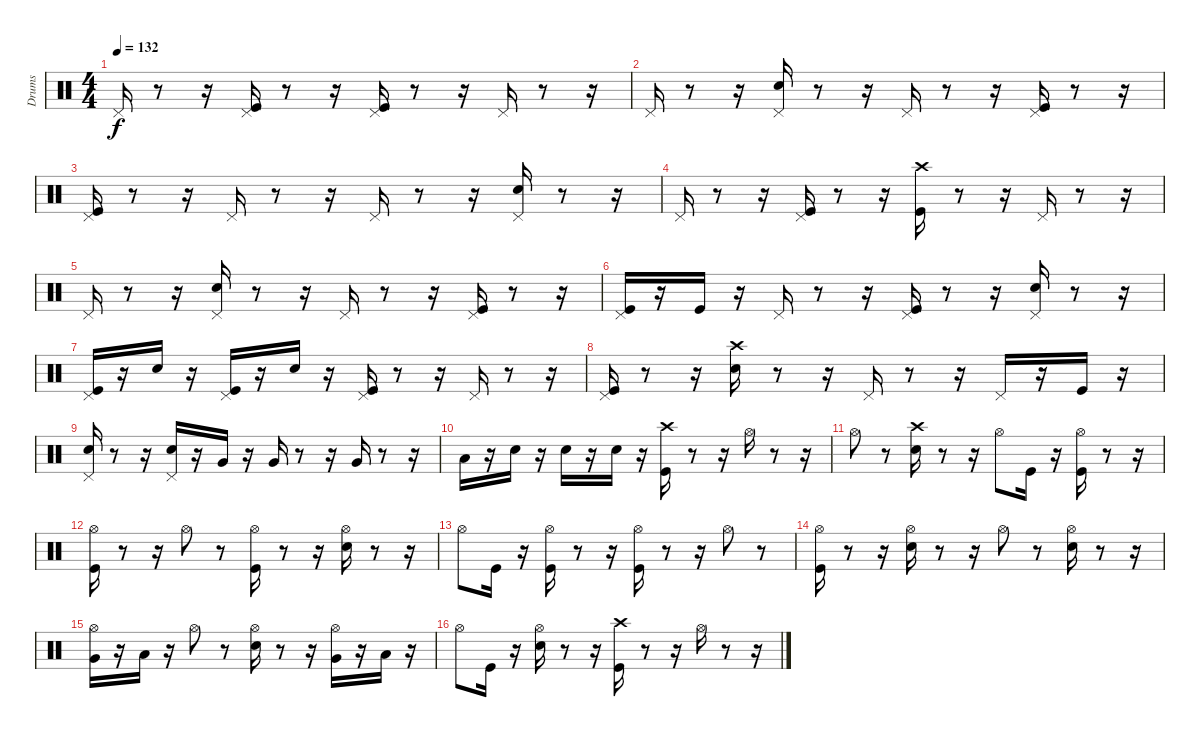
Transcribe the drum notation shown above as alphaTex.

\track ("Drums" "Drums") {instrument percussion}
\staff {score}
\articulation defaults
\ts (4 4)
\tempo 132
\clef neutral
\ks c "Pedal Hi-Hat (hit)".16{dy f}
r.8 r.16 ("Pedal Hi-Hat (hit)" "Kick (hit)").16 r.8 r.16 ("Pedal Hi-Hat (hit)" "Kick (hit)").16 r.8 r.16 "Pedal Hi-Hat (hit)".16 r.8 r.16 |
"Pedal Hi-Hat (hit)".16 r.8 r.16 ("Pedal Hi-Hat (hit)" "Snare (hit) 2").16 r.8 r.16 "Pedal Hi-Hat (hit)".16 r.8 r.16 ("Pedal Hi-Hat (hit)" "Kick (hit)").16 r.8 r.16 |
("Pedal Hi-Hat (hit)" "Kick (hit)").16 r.8 r.16 "Pedal Hi-Hat (hit)".16 r.8 r.16 "Pedal Hi-Hat (hit)".16 r.8 r.16 ("Pedal Hi-Hat (hit)" "Snare (hit) 2").16 r.8 r.16 |
"Pedal Hi-Hat (hit)".16 r.8 r.16 ("Pedal Hi-Hat (hit)" "Kick (hit)").16 r.8 r.16 ("Kick (hit)" "Crash high (hit)").16 r.8 r.16 "Pedal Hi-Hat (hit)".16 r.8 r.16 |
"Pedal Hi-Hat (hit)".16 r.8 r.16 ("Pedal Hi-Hat (hit)" "Snare (hit) 2").16 r.8 r.16 "Pedal Hi-Hat (hit)".16 r.8 r.16 ("Pedal Hi-Hat (hit)" "Kick (hit)").16 r.8 r.16 |
("Pedal Hi-Hat (hit)" "Kick (hit)").16 r.16 "Kick (hit)".16 r.16 "Pedal Hi-Hat (hit)".16 r.8 r.16 ("Pedal Hi-Hat (hit)" "Kick (hit)").16 r.8 r.16 ("Pedal Hi-Hat (hit)" "Snare (hit) 2").16 r.8 r.16 |
("Pedal Hi-Hat (hit)" "Kick (hit)").16 r.16 "Snare (hit) 2".16 r.16 ("Pedal Hi-Hat (hit)" "Kick (hit)").16 r.16 "Snare (hit) 2".16 r.16 ("Kick (hit)" "Pedal Hi-Hat (hit)").16 r.8 r.16 "Pedal Hi-Hat (hit)".16 r.8 r.16 |
("Pedal Hi-Hat (hit)" "Kick (hit)").16 r.8 r.16 ("Snare (hit) 2" "Crash high (hit)").16 r.8 r.16 "Pedal Hi-Hat (hit)".16 r.8 r.16 "Pedal Hi-Hat (hit)".16 r.16 "Kick (hit)".16 r.16 |
("Pedal Hi-Hat (hit)" "Snare (hit) 2").16 r.8 r.16 ("Pedal Hi-Hat (hit)" "Snare (hit) 2").16 r.16 "Very Low Tom (hit)".16 r.16 "Very Low Tom (hit)".16 r.8 r.16 "Very Low Tom (hit)".16 r.8 r.16 |
"Low Floor Tom (hit)".16 r.16 "Snare (hit) 2".16 r.16 "Snare (hit) 2".16 r.16 "Snare (hit) 2".16 r.16 ("Kick (hit)" "Crash high (hit)").16 r.8 r.16 "Hi-Hat (open)".16 r.8 r.16 |
"Hi-Hat (open)".8 r.8 ("Snare (hit) 2" "Crash high (hit)").16 r.8 r.16 "Hi-Hat (open)".8 "Kick (hit)".16 r.16 ("Hi-Hat (open)" "Kick (hit)").16 r.8 r.16 |
("Kick (hit)" "Hi-Hat (open)").16 r.8 r.16 "Hi-Hat (open)".8 r.8 ("Hi-Hat (open)" "Kick (hit)").16 r.8 r.16 ("Hi-Hat (open)" "Snare (hit) 2").16 r.8 r.16 |
"Hi-Hat (open)".8 "Kick (hit)".16 r.16 ("Hi-Hat (open)" "Kick (hit)").16 r.8 r.16 ("Hi-Hat (open)" "Kick (hit)").16 r.8 r.16 "Hi-Hat (open)".8 r.8 |
("Kick (hit)" "Hi-Hat (open)").16 r.8 r.16 ("Hi-Hat (open)" "Snare (hit) 2").16 r.8 r.16 "Hi-Hat (open)".8 r.8 ("Snare (hit) 2" "Hi-Hat (open)").16 r.8 r.16 |
("Hi-Hat (open)" "Very Low Tom (hit)").16 r.16 "Low Floor Tom (hit)".16 r.16 "Hi-Hat (open)".8 r.8 ("Hi-Hat (open)" "Snare (hit) 2").16 r.8 r.16 ("Hi-Hat (open)" "Very Low Tom (hit)").16 r.16 "Low Floor Tom (hit)".16 r.16 |
"Hi-Hat (open)".8 "Kick (hit)".16 r.16 ("Hi-Hat (open)" "Snare (hit) 2").16 r.8 r.16 ("Kick (hit)" "Crash high (hit)").16 r.8 r.16 "Hi-Hat (open)".16 r.8 r.16
